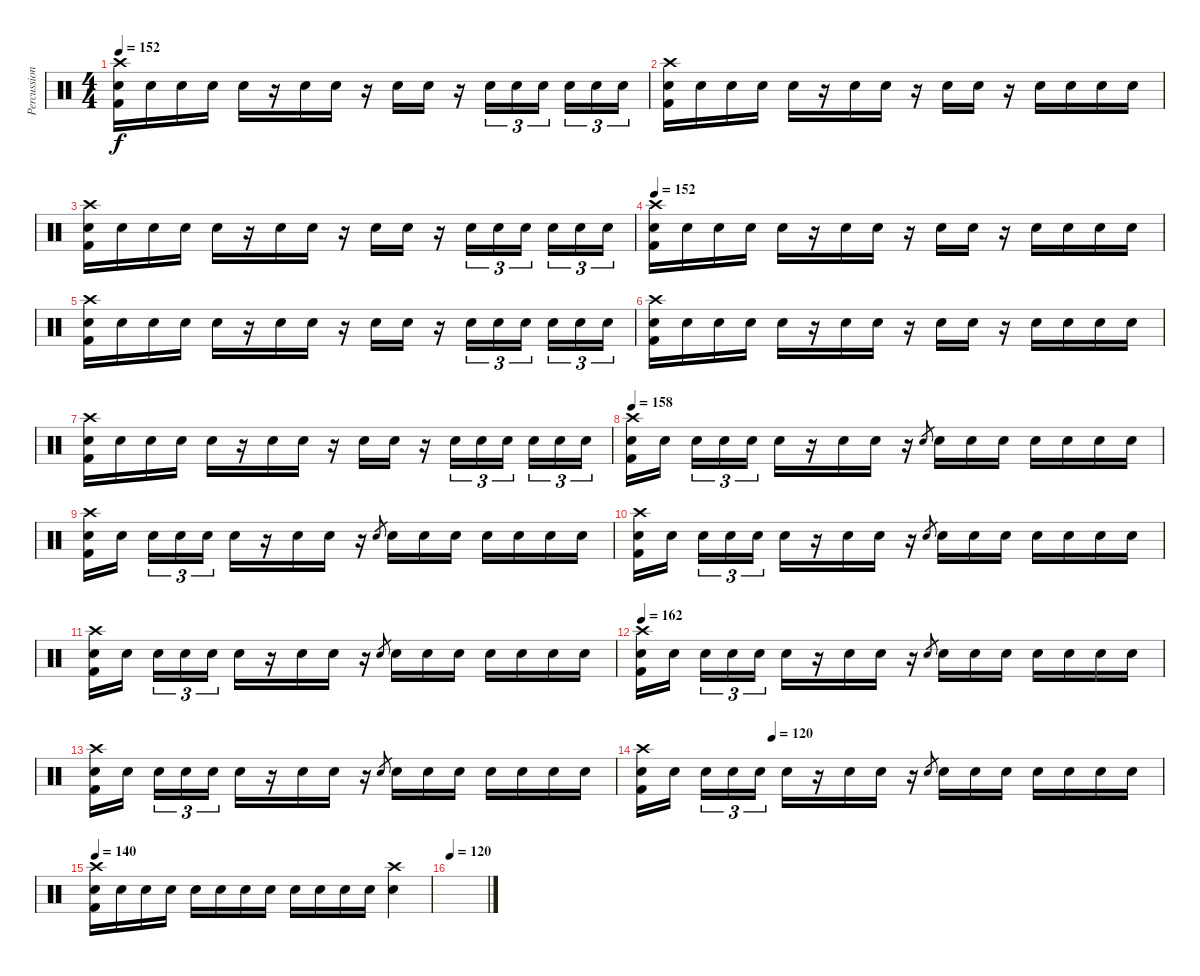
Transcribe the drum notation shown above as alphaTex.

\track ("Percussion" "Percussion") {instrument percussion}
\staff {score}
\articulation defaults
\ts (4 4)
\tempo 152
\clef neutral
\ks c
("Crash high (hit)" "Snare (hit) 2" "Kick (hit) 2").16{dy f} "Snare (hit) 2".16 "Snare (hit) 2".16 "Snare (hit) 2".16 "Snare (hit) 2".16 r.16 "Snare (hit) 2".16 "Snare (hit) 2".16 r.16 "Snare (hit) 2".16 "Snare (hit) 2".16 r.16 "Electric Snare (hit)".16{tu (3 2)} "Electric Snare (hit)".16{tu (3 2)} "Electric Snare (hit)".16{tu (3 2)} "Snare (hit) 2".16{tu (3 2)} "Snare (hit) 2".16{tu (3 2)} "Snare (hit) 2".16{tu (3 2)} |
("Crash high (hit)" "Snare (hit) 2" "Kick (hit) 2").16 "Snare (hit) 2".16 "Snare (hit) 2".16 "Snare (hit) 2".16 "Snare (hit) 2".16 r.16 "Snare (hit) 2".16 "Snare (hit) 2".16 r.16 "Snare (hit) 2".16 "Snare (hit) 2".16 r.16 "Electric Snare (hit)".16 "Snare (hit) 2".16 "Electric Snare (hit)".16 "Electric Snare (hit)".16 |
("Crash high (hit)" "Snare (hit) 2" "Kick (hit) 2").16 "Snare (hit) 2".16 "Snare (hit) 2".16 "Snare (hit) 2".16 "Snare (hit) 2".16 r.16 "Snare (hit) 2".16 "Snare (hit) 2".16 r.16 "Snare (hit) 2".16 "Snare (hit) 2".16 r.16 "Electric Snare (hit)".16{tu (3 2)} "Electric Snare (hit)".16{tu (3 2)} "Electric Snare (hit)".16{tu (3 2)} "Snare (hit) 2".16{tu (3 2)} "Snare (hit) 2".16{tu (3 2)} "Snare (hit) 2".16{tu (3 2)} |
\tempo 152
("Crash high (hit)" "Snare (hit) 2" "Kick (hit) 2").16 "Snare (hit) 2".16 "Snare (hit) 2".16 "Snare (hit) 2".16 "Snare (hit) 2".16 r.16 "Snare (hit) 2".16 "Snare (hit) 2".16 r.16 "Snare (hit) 2".16 "Snare (hit) 2".16 r.16 "Electric Snare (hit)".16 "Snare (hit) 2".16 "Electric Snare (hit)".16 "Electric Snare (hit)".16 |
("Crash high (hit)" "Snare (hit) 2" "Kick (hit) 2").16 "Snare (hit) 2".16 "Snare (hit) 2".16 "Snare (hit) 2".16 "Snare (hit) 2".16 r.16 "Snare (hit) 2".16 "Snare (hit) 2".16 r.16 "Snare (hit) 2".16 "Snare (hit) 2".16 r.16 "Electric Snare (hit)".16{tu (3 2)} "Electric Snare (hit)".16{tu (3 2)} "Electric Snare (hit)".16{tu (3 2)} "Snare (hit) 2".16{tu (3 2)} "Snare (hit) 2".16{tu (3 2)} "Snare (hit) 2".16{tu (3 2)} |
("Crash high (hit)" "Snare (hit) 2" "Kick (hit) 2").16 "Snare (hit) 2".16 "Snare (hit) 2".16 "Snare (hit) 2".16 "Snare (hit) 2".16 r.16 "Snare (hit) 2".16 "Snare (hit) 2".16 r.16 "Snare (hit) 2".16 "Snare (hit) 2".16 r.16 "Electric Snare (hit)".16 "Snare (hit) 2".16 "Electric Snare (hit)".16 "Electric Snare (hit)".16 |
("Crash high (hit)" "Snare (hit) 2" "Kick (hit) 2").16 "Snare (hit) 2".16 "Snare (hit) 2".16 "Snare (hit) 2".16 "Snare (hit) 2".16 r.16 "Snare (hit) 2".16 "Snare (hit) 2".16 r.16 "Snare (hit) 2".16 "Snare (hit) 2".16 r.16 "Electric Snare (hit)".16{tu (3 2)} "Electric Snare (hit)".16{tu (3 2)} "Electric Snare (hit)".16{tu (3 2)} "Snare (hit) 2".16{tu (3 2)} "Snare (hit) 2".16{tu (3 2)} "Snare (hit) 2".16{tu (3 2)} |
\tempo 162
\tempo 158
("Crash high (hit)" "Snare (hit) 2" "Kick (hit) 2").16 "Snare (hit) 2".16 "Snare (hit) 2".16{tu (3 2)} "Snare (hit) 2".16{tu (3 2)} "Snare (hit) 2".16{tu (3 2)} "Electric Snare (hit)".16 r.16 "Snare (hit) 2".16 "Electric Snare (hit)".16 r.16 "Snare (hit) 2".8{gr} "Snare (hit) 2".16 "Snare (hit) 2".16 "Snare (hit) 2".16 "Electric Snare (hit)".16 "Electric Snare (hit)".16 "Electric Snare (hit)".16 "Electric Snare (hit)".16 |
("Crash high (hit)" "Snare (hit) 2" "Kick (hit) 2").16 "Snare (hit) 2".16 "Snare (hit) 2".16{tu (3 2)} "Snare (hit) 2".16{tu (3 2)} "Snare (hit) 2".16{tu (3 2)} "Electric Snare (hit)".16 r.16 "Snare (hit) 2".16 "Electric Snare (hit)".16 r.16 "Snare (hit) 2".8{gr} "Snare (hit) 2".16 "Snare (hit) 2".16 "Snare (hit) 2".16 "Electric Snare (hit)".16 "Electric Snare (hit)".16 "Electric Snare (hit)".16 "Electric Snare (hit)".16 |
("Crash high (hit)" "Snare (hit) 2" "Kick (hit) 2").16 "Snare (hit) 2".16 "Snare (hit) 2".16{tu (3 2)} "Snare (hit) 2".16{tu (3 2)} "Snare (hit) 2".16{tu (3 2)} "Electric Snare (hit)".16 r.16 "Snare (hit) 2".16 "Electric Snare (hit)".16 r.16 "Snare (hit) 2".8{gr} "Snare (hit) 2".16 "Snare (hit) 2".16 "Snare (hit) 2".16 "Electric Snare (hit)".16 "Electric Snare (hit)".16 "Electric Snare (hit)".16 "Electric Snare (hit)".16 |
("Crash high (hit)" "Snare (hit) 2" "Kick (hit) 2").16 "Snare (hit) 2".16 "Snare (hit) 2".16{tu (3 2)} "Snare (hit) 2".16{tu (3 2)} "Snare (hit) 2".16{tu (3 2)} "Electric Snare (hit)".16 r.16 "Snare (hit) 2".16 "Electric Snare (hit)".16 r.16 "Snare (hit) 2".8{gr} "Snare (hit) 2".16 "Snare (hit) 2".16 "Snare (hit) 2".16 "Electric Snare (hit)".16 "Electric Snare (hit)".16 "Electric Snare (hit)".16 "Electric Snare (hit)".16 |
\tempo 162
("Crash high (hit)" "Snare (hit) 2" "Kick (hit) 2").16 "Snare (hit) 2".16 "Snare (hit) 2".16{tu (3 2)} "Snare (hit) 2".16{tu (3 2)} "Snare (hit) 2".16{tu (3 2)} "Electric Snare (hit)".16 r.16 "Snare (hit) 2".16 "Electric Snare (hit)".16 r.16 "Snare (hit) 2".8{gr} "Snare (hit) 2".16 "Snare (hit) 2".16 "Snare (hit) 2".16 "Electric Snare (hit)".16 "Electric Snare (hit)".16 "Electric Snare (hit)".16 "Electric Snare (hit)".16 |
("Crash high (hit)" "Snare (hit) 2" "Kick (hit) 2").16 "Snare (hit) 2".16 "Snare (hit) 2".16{tu (3 2)} "Snare (hit) 2".16{tu (3 2)} "Snare (hit) 2".16{tu (3 2)} "Electric Snare (hit)".16 r.16 "Snare (hit) 2".16 "Electric Snare (hit)".16 r.16 "Snare (hit) 2".8{gr} "Snare (hit) 2".16 "Snare (hit) 2".16 "Snare (hit) 2".16 "Electric Snare (hit)".16 "Electric Snare (hit)".16 "Electric Snare (hit)".16 "Electric Snare (hit)".16 |
\tempo (120 0.25)
("Crash high (hit)" "Snare (hit) 2" "Kick (hit) 2").16 "Snare (hit) 2".16 "Snare (hit) 2".16{tu (3 2)} "Snare (hit) 2".16{tu (3 2)} "Snare (hit) 2".16{tu (3 2)} "Electric Snare (hit)".16 r.16 "Snare (hit) 2".16 "Electric Snare (hit)".16 r.16 "Snare (hit) 2".8{gr} "Snare (hit) 2".16 "Snare (hit) 2".16 "Snare (hit) 2".16 "Electric Snare (hit)".16 "Electric Snare (hit)".16 "Electric Snare (hit)".16 "Electric Snare (hit)".16 |
\tempo 140
("Crash high (hit)" "Snare (hit) 2" "Kick (hit) 2").16 "Snare (hit) 2".16 "Snare (hit) 2".16 "Snare (hit) 2".16 "Electric Snare (hit)".16 "Snare (hit) 2".16 "Snare (hit) 2".16 "Snare (hit) 2".16 "Snare (hit) 2".16 "Snare (hit) 2".16 "Snare (hit) 2".16 "Electric Snare (hit)".16 ("Crash high (hit)" "Electric Snare (hit)").4 |
\tempo 120
